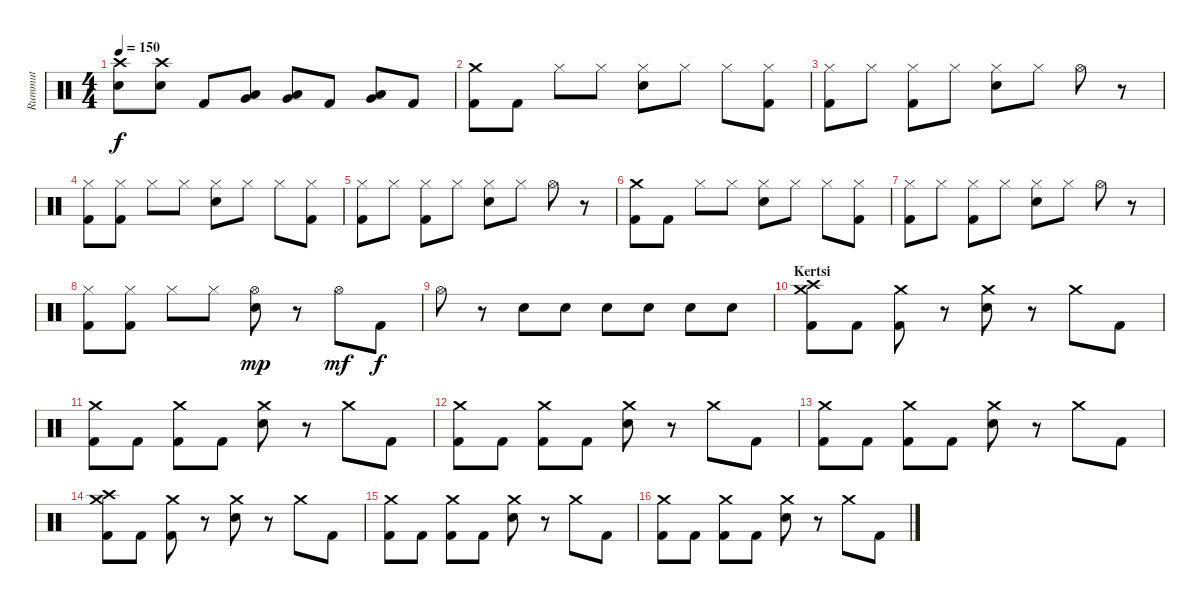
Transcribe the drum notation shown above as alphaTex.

\track ("Rummut" "Rummut") {instrument percussion}
\staff {score}
\articulation defaults
\ts (4 4)
\tempo 150
\clef neutral
\ks c
("Crash high (hit)" "Snare (hit) 2").8{dy f} ("Crash high (hit)" "Snare (hit) 2").8 "Kick (hit) 2".8 ("Low Tom (hit)" "Very Low Tom (hit)").8 ("Low Tom (hit)" "Very Low Tom (hit)").8 "Kick (hit) 2".8 ("Very Low Tom (hit)" "Low Floor Tom (hit)").8 "Kick (hit) 2".8 |
("Crash medium (hit)" "Kick (hit) 2").8 "Kick (hit) 2".8 "Hi-Hat (closed)".8 "Hi-Hat (closed)".8 ("Hi-Hat (closed)" "Snare (hit) 2").8 "Hi-Hat (closed)".8 "Hi-Hat (closed)".8 ("Hi-Hat (closed)" "Kick (hit) 2").8 |
("Hi-Hat (closed)" "Kick (hit) 2").8 "Hi-Hat (closed)".8 ("Hi-Hat (closed)" "Kick (hit) 2").8 "Hi-Hat (closed)".8 ("Hi-Hat (closed)" "Snare (hit) 2").8 "Hi-Hat (closed)".8 "Hi-Hat (open)".8 r.8 |
("Hi-Hat (closed)" "Kick (hit) 2").8 ("Hi-Hat (closed)" "Kick (hit) 2").8 "Hi-Hat (closed)".8 "Hi-Hat (closed)".8 ("Hi-Hat (closed)" "Snare (hit) 2").8 "Hi-Hat (closed)".8 "Hi-Hat (closed)".8 ("Hi-Hat (closed)" "Kick (hit) 2").8 |
("Hi-Hat (closed)" "Kick (hit) 2").8 "Hi-Hat (closed)".8 ("Hi-Hat (closed)" "Kick (hit) 2").8 "Hi-Hat (closed)".8 ("Hi-Hat (closed)" "Snare (hit) 2").8 "Hi-Hat (closed)".8 "Hi-Hat (open)".8 r.8 |
("Crash medium (hit)" "Kick (hit) 2").8 "Kick (hit) 2".8 "Hi-Hat (closed)".8 "Hi-Hat (closed)".8 ("Hi-Hat (closed)" "Snare (hit) 2").8 "Hi-Hat (closed)".8 "Hi-Hat (closed)".8 ("Hi-Hat (closed)" "Kick (hit) 2").8 |
("Hi-Hat (closed)" "Kick (hit) 2").8 "Hi-Hat (closed)".8 ("Hi-Hat (closed)" "Kick (hit) 2").8 "Hi-Hat (closed)".8 ("Hi-Hat (closed)" "Snare (hit) 2").8 "Hi-Hat (closed)".8 "Hi-Hat (open)".8 r.8 |
("Hi-Hat (closed)" "Kick (hit) 2").8 ("Hi-Hat (closed)" "Kick (hit) 2").8 "Hi-Hat (closed)".8 "Hi-Hat (closed)".8 ("Hi-Hat (open)" "Snare (hit) 2").8{dy mp} r.8 "Hi-Hat (open)".8{dy mf} "Kick (hit) 2".8{dy f} |
"Hi-Hat (open)".8 r.8 "Snare (hit) 2".8 "Snare (hit) 2".8 "Snare (hit) 2".8 "Snare (hit) 2".8 "Snare (hit) 2".8 "Snare (hit) 2".8 |
\section ("" "Kertsi")
("Crash high (hit)" "Crash medium (hit)" "Kick (hit) 2").8 "Kick (hit) 2".8 ("Crash medium (hit)" "Kick (hit) 2").8 r.8 ("Crash medium (hit)" "Snare (hit) 2").8 r.8 "Crash medium (hit)".8 "Kick (hit) 2".8 |
("Crash medium (hit)" "Kick (hit) 2").8 "Kick (hit) 2".8 ("Crash medium (hit)" "Kick (hit) 2").8 "Kick (hit) 2".8 ("Crash medium (hit)" "Snare (hit) 2").8 r.8 "Crash medium (hit)".8 "Kick (hit) 2".8 |
("Crash medium (hit)" "Kick (hit) 2").8 "Kick (hit) 2".8 ("Crash medium (hit)" "Kick (hit) 2").8 "Kick (hit) 2".8 ("Crash medium (hit)" "Snare (hit) 2").8 r.8 "Crash medium (hit)".8 "Kick (hit) 2".8 |
("Crash medium (hit)" "Kick (hit) 2").8 "Kick (hit) 2".8 ("Crash medium (hit)" "Kick (hit) 2").8 "Kick (hit) 2".8 ("Crash medium (hit)" "Snare (hit) 2").8 r.8 "Crash medium (hit)".8 "Kick (hit) 2".8 |
("Crash high (hit)" "Crash medium (hit)" "Kick (hit) 2").8 "Kick (hit) 2".8 ("Crash medium (hit)" "Kick (hit) 2").8 r.8 ("Crash medium (hit)" "Snare (hit) 2").8 r.8 "Crash medium (hit)".8 "Kick (hit) 2".8 |
("Crash medium (hit)" "Kick (hit) 2").8 "Kick (hit) 2".8 ("Crash medium (hit)" "Kick (hit) 2").8 "Kick (hit) 2".8 ("Crash medium (hit)" "Snare (hit) 2").8 r.8 "Crash medium (hit)".8 "Kick (hit) 2".8 |
("Crash medium (hit)" "Kick (hit) 2").8 "Kick (hit) 2".8 ("Crash medium (hit)" "Kick (hit) 2").8 "Kick (hit) 2".8 ("Crash medium (hit)" "Snare (hit) 2").8 r.8 "Crash medium (hit)".8 "Kick (hit) 2".8
